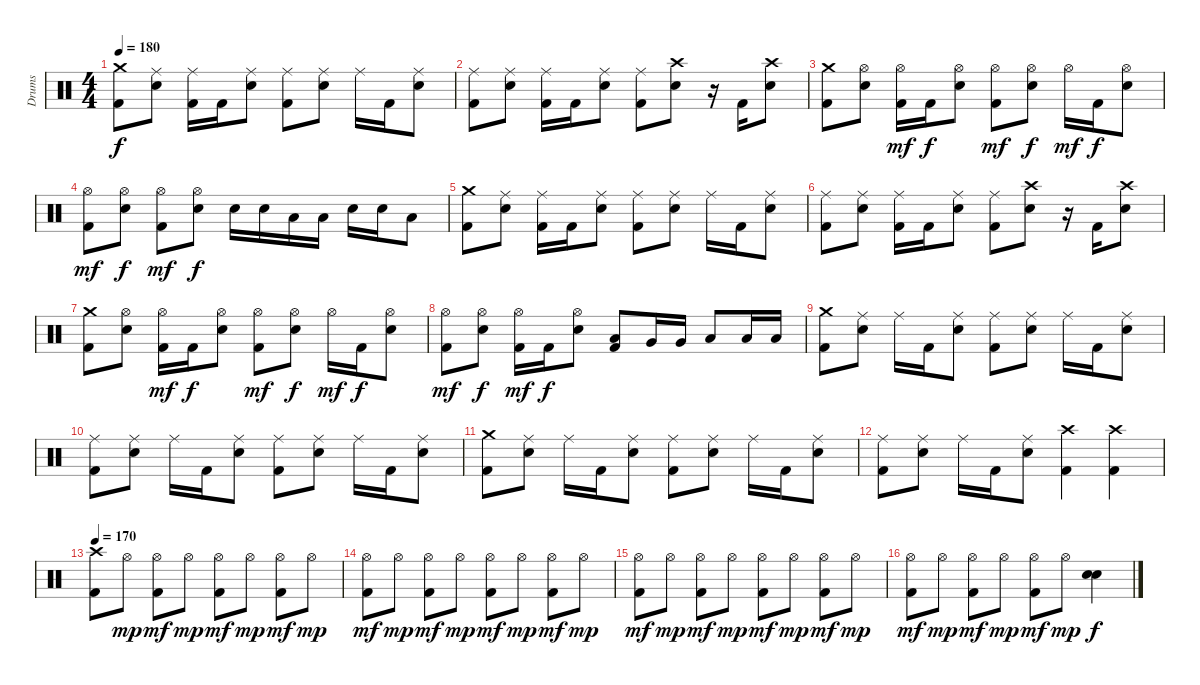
\track ("Drums" "Drums") {instrument percussion}
\staff {score}
\articulation defaults
\ts (4 4)
\tempo 180
\clef neutral
\ks c
("Crash medium (hit)" "Kick (hit) 2").8{dy f} ("Ride (middle)" "Electric Snare (hit)").8 ("Ride (middle)" "Kick (hit) 2").16 "Kick (hit) 2".16 ("Ride (middle)" "Electric Snare (hit)").8 ("Ride (middle)" "Kick (hit) 2").8 ("Ride (middle)" "Electric Snare (hit)").8 "Ride (middle)".16 "Kick (hit) 2".16 ("Ride (middle)" "Electric Snare (hit)").8 |
("Ride (middle)" "Kick (hit) 2").8 ("Ride (middle)" "Electric Snare (hit)").8 ("Ride (middle)" "Kick (hit) 2").16 "Kick (hit) 2".16 ("Ride (middle)" "Electric Snare (hit)").8 ("Ride (middle)" "Kick (hit) 2").8 ("Crash high (hit)" "Electric Snare (hit)").8 r.16 "Kick (hit) 2".16 ("Crash high (hit)" "Electric Snare (hit)").8 |
("Crash medium (hit)" "Kick (hit) 2").8 ("Hi-Hat (open)" "Electric Snare (hit)").8 ("Hi-Hat (open)" "Kick (hit) 2").16{dy mf} "Kick (hit) 2".16{dy f} ("Hi-Hat (open)" "Electric Snare (hit)").8 ("Hi-Hat (open)" "Kick (hit) 2").8{dy mf} ("Hi-Hat (open)" "Electric Snare (hit)").8{dy f} "Hi-Hat (open)".16{dy mf} "Kick (hit) 2".16{dy f} ("Hi-Hat (open)" "Electric Snare (hit)").8 |
("Hi-Hat (open)" "Kick (hit) 2").8{dy mf} ("Hi-Hat (open)" "Electric Snare (hit)").8{dy f} ("Hi-Hat (open)" "Kick (hit) 2").8{dy mf} ("Hi-Hat (open)" "Electric Snare (hit)").8{dy f} "Electric Snare (hit)".16 "Electric Snare (hit)".16 "Low Tom (hit)".16 "Low Tom (hit)".16 "Electric Snare (hit)".16 "Electric Snare (hit)".16 "Low Floor Tom (hit)".8 |
("Crash medium (hit)" "Kick (hit) 2").8 ("Ride (middle)" "Electric Snare (hit)").8 ("Ride (middle)" "Kick (hit) 2").16 "Kick (hit) 2".16 ("Ride (middle)" "Electric Snare (hit)").8 ("Ride (middle)" "Kick (hit) 2").8 ("Ride (middle)" "Electric Snare (hit)").8 "Ride (middle)".16 "Kick (hit) 2".16 ("Ride (middle)" "Electric Snare (hit)").8 |
("Ride (middle)" "Kick (hit) 2").8 ("Ride (middle)" "Electric Snare (hit)").8 ("Ride (middle)" "Kick (hit) 2").16 "Kick (hit) 2".16 ("Ride (middle)" "Electric Snare (hit)").8 ("Ride (middle)" "Kick (hit) 2").8 ("Crash high (hit)" "Electric Snare (hit)").8 r.16 "Kick (hit) 2".16 ("Crash high (hit)" "Electric Snare (hit)").8 |
("Crash medium (hit)" "Kick (hit) 2").8 ("Hi-Hat (open)" "Electric Snare (hit)").8 ("Hi-Hat (open)" "Kick (hit) 2").16{dy mf} "Kick (hit) 2".16{dy f} ("Hi-Hat (open)" "Electric Snare (hit)").8 ("Hi-Hat (open)" "Kick (hit) 2").8{dy mf} ("Hi-Hat (open)" "Electric Snare (hit)").8{dy f} "Hi-Hat (open)".16{dy mf} "Kick (hit) 2".16{dy f} ("Hi-Hat (open)" "Electric Snare (hit)").8 |
("Hi-Hat (open)" "Kick (hit) 2").8{dy mf} ("Hi-Hat (open)" "Electric Snare (hit)").8{dy f} ("Hi-Hat (open)" "Kick (hit) 2").16{dy mf} "Kick (hit) 2".16{dy f} ("Hi-Hat (open)" "Electric Snare (hit)").8 ("Low Tom (hit)" "Kick (hit) 2").8 "Very Low Tom (hit)".16 "Very Low Tom (hit)".16 "Low Tom (hit)".8 "Low Floor Tom (hit)".16 "Low Floor Tom (hit)".16 |
("Crash medium (hit)" "Kick (hit) 2").8 ("Ride (middle)" "Electric Snare (hit)").8 "Ride (middle)".16 "Kick (hit) 2".16 ("Ride (middle)" "Electric Snare (hit)").8 ("Ride (middle)" "Kick (hit) 2").8 ("Ride (middle)" "Electric Snare (hit)").8 "Ride (middle)".16 "Kick (hit) 2".16 ("Ride (middle)" "Electric Snare (hit)").8 |
("Ride (middle)" "Kick (hit) 2").8 ("Ride (middle)" "Electric Snare (hit)").8 "Ride (middle)".16 "Kick (hit) 2".16 ("Ride (middle)" "Electric Snare (hit)").8 ("Ride (middle)" "Kick (hit) 2").8 ("Ride (middle)" "Electric Snare (hit)").8 "Ride (middle)".16 "Kick (hit) 2".16 ("Ride (middle)" "Electric Snare (hit)").8 |
("Crash medium (hit)" "Kick (hit) 2").8 ("Ride (middle)" "Electric Snare (hit)").8 "Ride (middle)".16 "Kick (hit) 2".16 ("Ride (middle)" "Electric Snare (hit)").8 ("Ride (middle)" "Kick (hit) 2").8 ("Ride (middle)" "Electric Snare (hit)").8 "Ride (middle)".16 "Kick (hit) 2".16 ("Ride (middle)" "Electric Snare (hit)").8 |
("Ride (middle)" "Kick (hit) 2").8 ("Ride (middle)" "Electric Snare (hit)").8 "Ride (middle)".16 "Kick (hit) 2".16 ("Ride (middle)" "Electric Snare (hit)").8 ("Crash high (hit)" "Kick (hit) 2").4 ("Crash high (hit)" "Kick (hit) 2").4 |
\tempo 170
("Crash high (hit)" "Kick (hit) 2").8 "Hi-Hat (open)".8{dy mp} ("Hi-Hat (open)" "Kick (hit) 2").8{dy mf} "Hi-Hat (open)".8{dy mp} ("Hi-Hat (open)" "Kick (hit) 2").8{dy mf} "Hi-Hat (open)".8{dy mp} ("Hi-Hat (open)" "Kick (hit) 2").8{dy mf} "Hi-Hat (open)".8{dy mp} |
("Hi-Hat (open)" "Kick (hit) 2").8{dy mf} "Hi-Hat (open)".8{dy mp} ("Hi-Hat (open)" "Kick (hit) 2").8{dy mf} "Hi-Hat (open)".8{dy mp} ("Hi-Hat (open)" "Kick (hit) 2").8{dy mf} "Hi-Hat (open)".8{dy mp} ("Hi-Hat (open)" "Kick (hit) 2").8{dy mf} "Hi-Hat (open)".8{dy mp} |
("Hi-Hat (open)" "Kick (hit) 2").8{dy mf} "Hi-Hat (open)".8{dy mp} ("Hi-Hat (open)" "Kick (hit) 2").8{dy mf} "Hi-Hat (open)".8{dy mp} ("Hi-Hat (open)" "Kick (hit) 2").8{dy mf} "Hi-Hat (open)".8{dy mp} ("Hi-Hat (open)" "Kick (hit) 2").8{dy mf} "Hi-Hat (open)".8{dy mp} |
("Hi-Hat (open)" "Kick (hit) 2").8{dy mf} "Hi-Hat (open)".8{dy mp} ("Hi-Hat (open)" "Kick (hit) 2").8{dy mf} "Hi-Hat (open)".8{dy mp} ("Hi-Hat (open)" "Kick (hit) 2").8{dy mf} "Hi-Hat (open)".8{dy mp} ("Electric Snare (hit)" "Electric Snare (hit)").4{bu 120 dy f}
